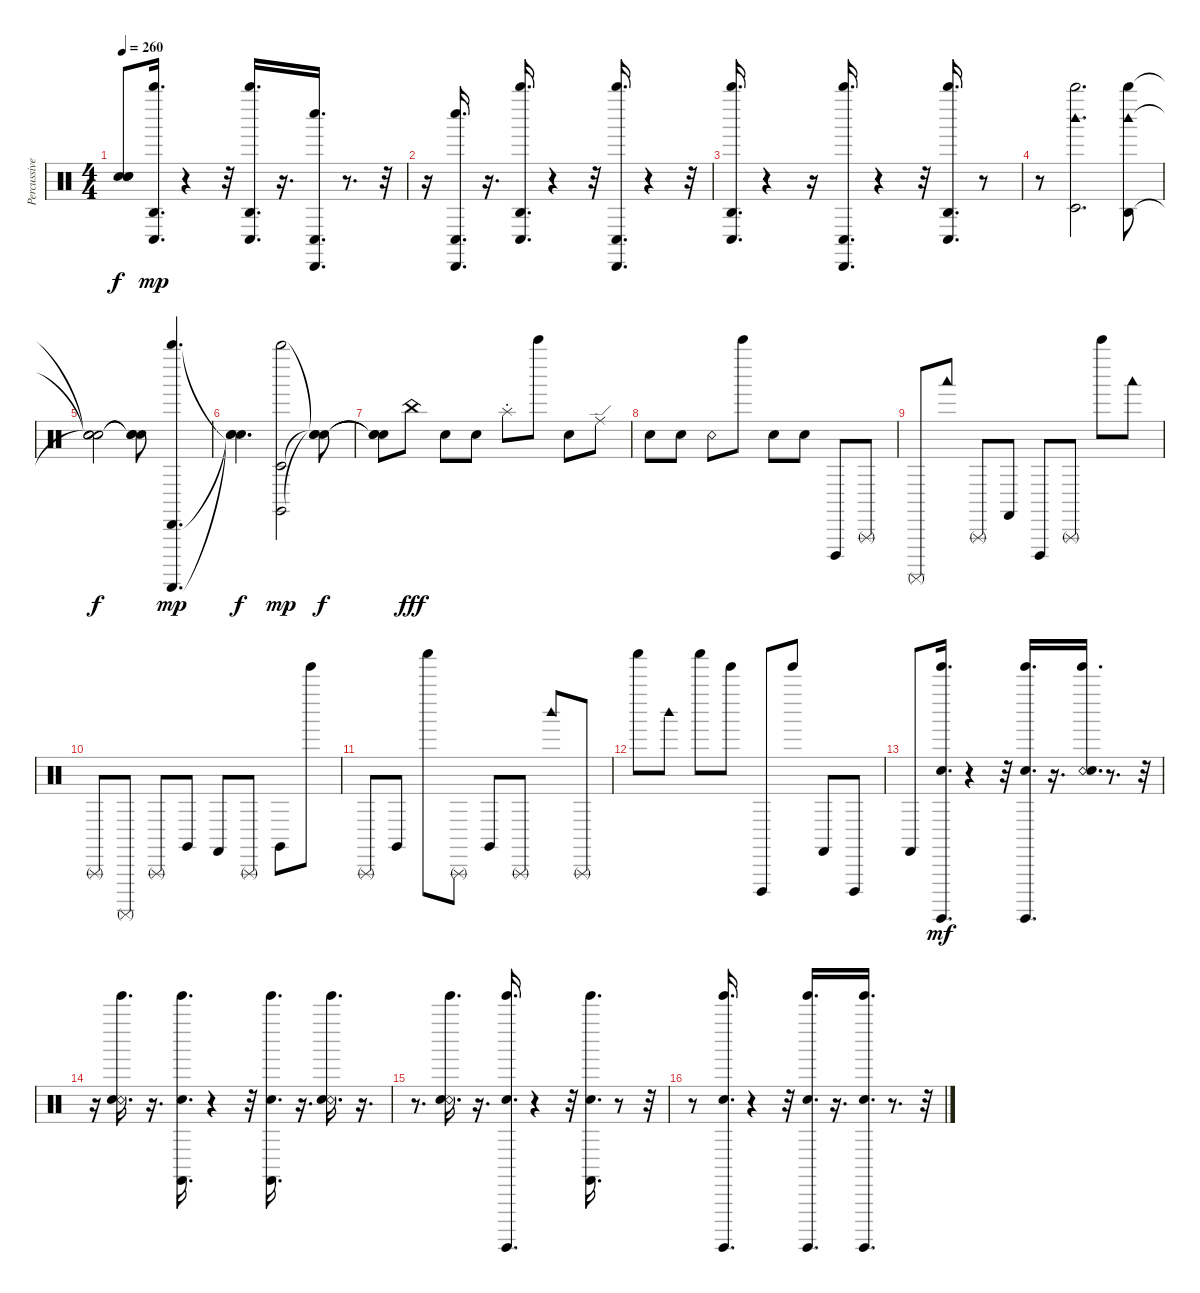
\track ("Percussive Organ" "Percussive") {instrument percussion}
\staff {score}
\articulation defaults
\ts (4 4)
\tempo 260
\clef neutral
\ks c
("Snare (hit)"{t} "Snare (hit)"{t} "Snare (hit)"{t}).8{dy f} ("Conga low (hit)" "Whistle high (hit)" "Agogo high (hit)").16{d dy mp} r.4 r.32 ("Conga low (hit)" "Whistle high (hit)" "Agogo high (hit)").16{d} r.16{d} ("Conga low (hit)" "Whistle low (hit)" "Cabasa (hit)").16{d} r.8{d} r.32 |
r.16 ("Conga low (hit)" "Whistle low (hit)" "Cabasa (hit)").16{d} r.16{d} ("Conga low (hit)" "Whistle high (hit)" "Agogo high (hit)").16{d} r.4 r.32 ("Conga low (hit)" "Cabasa (hit)" "Whistle high (hit)").16{d} r.4 r.32 |
("Conga low (hit)" "Whistle high (hit)" "Agogo high (hit)").16{d} r.4 r.16 ("Conga low (hit)" "Cabasa (hit)" "Whistle high (hit)").16{d} r.4 r.32 ("Conga low (hit)" "Whistle high (hit)" "Agogo high (hit)").16{d} r.8 |
r.8 ("Timbale low (hit)" "Whistle high (hit)" "Woodblock high (hit)").2{d} ("Agogo high (hit)" "Whistle high (hit)" "Woodblock high (hit)").8 |
("Snare (hit)"{t} "Snare (hit)"{t} "Snare (hit)"{t}).2{dy f} ("Snare (hit)"{t} "Snare (hit)"{t} "Snare (hit)"{t}).8 ("Cabasa (hit)" "Whistle high (hit)" "Guiro (scrap-return)").4{d dy mp} |
("Snare (hit)"{t} "Snare (hit)"{t} "Snare (hit)"{t}).4{d dy f} ("Timbale low (hit)" "Whistle high (hit)" "Claves (hit)").2{dy mp} ("Snare (hit)"{t} "Snare (hit)"{t} "Snare (hit)"{t}).8{dy f} |
("Snare (hit)"{t} "Snare (hit)"{t} "Snare (hit)"{t}).8 "China (choke)".8{dy fff} "Snare (hit)".8 "Snare (hit)".8 "Splash (choke)".8 "Bell Tree (hit)".8 "Snare (hit)".8 "Ride (edge)".8 |
"Snare (hit)".8 "Snare (hit)".8 "Snare (rim shot)".8 "Bell Tree (hit)".8 "Snare (hit)".8 "Snare (hit)".8 "Cuica (open)".8 "Triangle (rnute)".8 |
"Surdo (mute)".8 "Woodblock low (hit)".8 "Triangle (rnute)".8 "Castanets (hit)".8 "Cuica (open)".8 "Triangle (rnute)".8 "Bell Tree (hit)".8 "Woodblock low (hit)".8 |
"Triangle (rnute)".8 "Surdo (mute)".8 "Triangle (rnute)".8 "Claves (hit)".8 "Castanets (hit)".8 "Triangle (rnute)".8 "Claves (hit)".8 "Tinkle Bell (hit)".8 |
"Triangle (rnute)".8 "Claves (hit)".8 "Shaker (hit)".8 "Triangle (rnute)".8 "Claves (hit)".8 "Triangle (rnute)".8 "Woodblock high (hit)".8 "Triangle (rnute)".8 |
"Shaker (hit)".8 "Woodblock high (hit)".8 "Shaker (hit)".8 "Tinkle Bell (hit)".8 "Cuica (open)".8 "Tinkle Bell (hit)".8 "Castanets (hit)".8 "Cuica (open)".8 |
"Castanets (hit)".8 ("Tinkle Bell (hit)" "Snare (hit)" "Surdo (hit)").16{d dy mf} r.4 r.32 ("Tinkle Bell (hit)" "Snare (hit)" "Surdo (hit)").16{d} r.16{d} ("Tinkle Bell (hit)" "Snare (rim shot)" "Snare (hit)").16{d} r.8{d} r.32 |
r.16 ("Tinkle Bell (hit)" "Snare (rim shot)" "Snare (hit)").16{d} r.16{d} ("Tinkle Bell (hit)" "Snare (hit)" "Castanets (hit)").16{d} r.4 r.32 ("Tinkle Bell (hit)" "Snare (hit)" "Castanets (hit)").16{d} r.16{d} ("Tinkle Bell (hit)" "Snare (rim shot)" "Snare (hit)").16{d} r.16{d} |
r.8{d} ("Tinkle Bell (hit)" "Snare (rim shot)" "Snare (hit)").16{d} r.16{d} ("Tinkle Bell (hit)" "Snare (hit)" "Surdo (hit)").16{d} r.4 r.32 ("Tinkle Bell (hit)" "Snare (hit)" "Castanets (hit)").16{d} r.8 r.32 |
r.8 ("Tinkle Bell (hit)" "Snare (hit)" "Surdo (hit)").16{d} r.4 r.32 ("Tinkle Bell (hit)" "Snare (hit)" "Surdo (hit)").16{d} r.16{d} ("Tinkle Bell (hit)" "Snare (hit)" "Surdo (hit)").16{d} r.8{d} r.32
